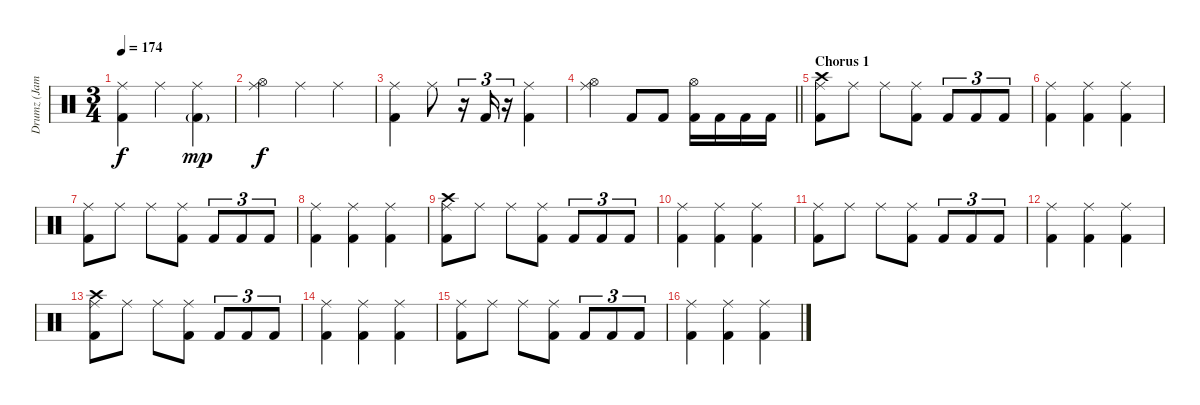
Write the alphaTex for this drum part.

\track ("Drumz (James Kottak)" "Drumz (Jam") {instrument percussion}
\staff {score}
\articulation defaults
\ts (3 4)
\tempo 174
\clef neutral
\ks c
("Ride (middle)" "Kick (hit) 2").4{dy f} "Ride (middle)".4 ("Ride (middle)" "Kick (hit) 2"{g}).4{dy mp} |
("Ride (middle)" "Hi-Hat (open)").4{dy f} "Ride (middle)".4 "Ride (middle)".4 |
("Ride (middle)" "Kick (hit) 2").4 "Ride (middle)".8 r.16{tu (3 2)} "Kick (hit) 2".16{tu (3 2)} r.16{tu (3 2)} ("Ride (middle)" "Kick (hit) 2").4 |
\barLineRight lightlight
("Ride (middle)" "Hi-Hat (open)").4 "Kick (hit) 2".8 "Kick (hit) 2".8 ("Kick (hit) 2" "Hi-Hat (open)").16 "Kick (hit) 2".16 "Kick (hit) 2".16 "Kick (hit) 2".16 |
\section ("" "Chorus 1")
("Ride (middle)" "Crash high (hit)" "Kick (hit) 2").8 "Ride (middle)".8 "Ride (middle)".8 ("Ride (middle)" "Kick (hit) 2").8 "Kick (hit) 2".8{tu (3 2)} "Kick (hit) 2".8{tu (3 2)} "Kick (hit) 2".8{tu (3 2)} |
("Ride (middle)" "Kick (hit) 2").4 ("Kick (hit) 2" "Ride (middle)").4 ("Ride (middle)" "Kick (hit) 2").4 |
("Ride (middle)" "Kick (hit) 2").8 "Ride (middle)".8 "Ride (middle)".8 ("Ride (middle)" "Kick (hit) 2").8 "Kick (hit) 2".8{tu (3 2)} "Kick (hit) 2".8{tu (3 2)} "Kick (hit) 2".8{tu (3 2)} |
("Ride (middle)" "Kick (hit) 2").4 ("Kick (hit) 2" "Ride (middle)").4 ("Ride (middle)" "Kick (hit) 2").4 |
("Ride (middle)" "Crash high (hit)" "Kick (hit) 2").8 "Ride (middle)".8 "Ride (middle)".8 ("Ride (middle)" "Kick (hit) 2").8 "Kick (hit) 2".8{tu (3 2)} "Kick (hit) 2".8{tu (3 2)} "Kick (hit) 2".8{tu (3 2)} |
("Ride (middle)" "Kick (hit) 2").4 ("Kick (hit) 2" "Ride (middle)").4 ("Ride (middle)" "Kick (hit) 2").4 |
("Ride (middle)" "Kick (hit) 2").8 "Ride (middle)".8 "Ride (middle)".8 ("Ride (middle)" "Kick (hit) 2").8 "Kick (hit) 2".8{tu (3 2)} "Kick (hit) 2".8{tu (3 2)} "Kick (hit) 2".8{tu (3 2)} |
("Ride (middle)" "Kick (hit) 2").4 ("Kick (hit) 2" "Ride (middle)").4 ("Ride (middle)" "Kick (hit) 2").4 |
("Ride (middle)" "Crash high (hit)" "Kick (hit) 2").8 "Ride (middle)".8 "Ride (middle)".8 ("Ride (middle)" "Kick (hit) 2").8 "Kick (hit) 2".8{tu (3 2)} "Kick (hit) 2".8{tu (3 2)} "Kick (hit) 2".8{tu (3 2)} |
("Ride (middle)" "Kick (hit) 2").4 ("Kick (hit) 2" "Ride (middle)").4 ("Ride (middle)" "Kick (hit) 2").4 |
("Ride (middle)" "Kick (hit) 2").8 "Ride (middle)".8 "Ride (middle)".8 ("Ride (middle)" "Kick (hit) 2").8 "Kick (hit) 2".8{tu (3 2)} "Kick (hit) 2".8{tu (3 2)} "Kick (hit) 2".8{tu (3 2)} |
("Ride (middle)" "Kick (hit) 2").4 ("Kick (hit) 2" "Ride (middle)").4 ("Ride (middle)" "Kick (hit) 2").4
